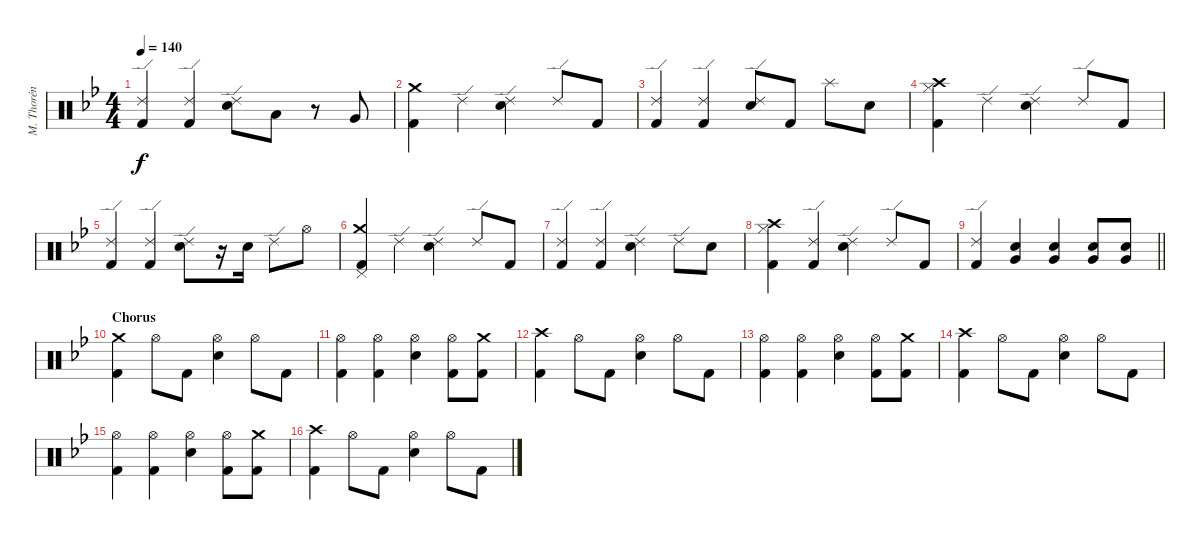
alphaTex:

\track ("M. Thorén (Drums)" "M. Thorén ") {instrument percussion}
\staff {score}
\articulation defaults
\ts (4 4)
\tempo 140
\clef neutral
\ks gminor
("Ride (edge) 2" "Kick (hit) 2").4{dy f} ("Ride (edge) 2" "Kick (hit) 2").4 ("Ride (edge) 2" "Electric Snare (hit)").8 "Low Tom (hit)".8 r.8 "Very Low Tom (hit)".8 |
("Crash medium (hit)" "Kick (hit) 2").4 "Ride (edge) 2".4 ("Ride (edge) 2" "Electric Snare (hit)").4 "Ride (edge) 2".8 "Kick (hit) 2".8 |
("Ride (edge) 2" "Kick (hit) 2").4 ("Ride (edge) 2" "Kick (hit) 2").4 ("Ride (edge) 2" "Electric Snare (hit)").8 "Kick (hit) 2".8 "Splash (hit)".8 "Electric Snare (hit)".8 |
("Crash high (hit)" "Hi-Hat (closed)" "Kick (hit) 2").4 "Ride (edge) 2".4 ("Ride (edge) 2" "Electric Snare (hit)").4 "Ride (edge) 2".8 "Kick (hit) 2".8 |
("Ride (edge) 2" "Kick (hit) 2").4 ("Ride (edge) 2" "Kick (hit) 2").4 ("Ride (edge) 2" "Electric Snare (hit)").8 r.16 "Electric Snare (hit)".16 "Ride (edge) 2".8 "Hi-Hat (open)".8 |
("Crash medium (hit)" "Pedal Hi-Hat (hit)" "Kick (hit) 2").4 "Ride (edge) 2".4 ("Ride (edge) 2" "Electric Snare (hit)").4 "Ride (edge) 2".8 "Kick (hit) 2".8 |
("Ride (edge) 2" "Kick (hit) 2").4 ("Ride (edge) 2" "Kick (hit) 2").4 ("Ride (edge) 2" "Electric Snare (hit)").4 "Ride (edge) 2".8 "Electric Snare (hit)".8 |
("Crash high (hit)" "Hi-Hat (closed)" "Kick (hit) 2").4 ("Ride (edge) 2" "Kick (hit) 2").4 ("Ride (edge) 2" "Electric Snare (hit)").4 "Ride (edge) 2".8 "Kick (hit) 2".8 |
\barLineRight lightlight
("Ride (edge) 2" "Kick (hit) 2").4 ("Electric Snare (hit)" "Very Low Tom (hit)").4 ("Electric Snare (hit)" "Very Low Tom (hit)").4 ("Electric Snare (hit)" "Very Low Tom (hit)").8 ("Electric Snare (hit)" "Very Low Tom (hit)").8 |
\section ("" "Chorus")
("Crash medium (hit)" "Kick (hit) 2").4 "Hi-Hat (open)".8 "Kick (hit) 2".8 ("Hi-Hat (open)" "Electric Snare (hit)").4 "Hi-Hat (open)".8 "Kick (hit) 2".8 |
("Hi-Hat (open)" "Kick (hit) 2").4 ("Hi-Hat (open)" "Kick (hit) 2").4 ("Hi-Hat (open)" "Electric Snare (hit)").4 ("Hi-Hat (open)" "Kick (hit) 2").8 ("Crash medium (hit)" "Kick (hit) 2").8 |
("Crash high (hit)" "Kick (hit) 2").4 "Hi-Hat (open)".8 "Kick (hit) 2".8 ("Hi-Hat (open)" "Electric Snare (hit)").4 "Hi-Hat (open)".8 "Kick (hit) 2".8 |
("Hi-Hat (open)" "Kick (hit) 2").4 ("Hi-Hat (open)" "Kick (hit) 2").4 ("Hi-Hat (open)" "Electric Snare (hit)").4 ("Hi-Hat (open)" "Kick (hit) 2").8 ("Crash medium (hit)" "Kick (hit) 2").8 |
("Crash high (hit)" "Kick (hit) 2").4 "Hi-Hat (open)".8 "Kick (hit) 2".8 ("Hi-Hat (open)" "Electric Snare (hit)").4 "Hi-Hat (open)".8 "Kick (hit) 2".8 |
("Hi-Hat (open)" "Kick (hit) 2").4 ("Hi-Hat (open)" "Kick (hit) 2").4 ("Hi-Hat (open)" "Electric Snare (hit)").4 ("Hi-Hat (open)" "Kick (hit) 2").8 ("Crash medium (hit)" "Kick (hit) 2").8 |
("Crash high (hit)" "Kick (hit) 2").4 "Hi-Hat (open)".8 "Kick (hit) 2".8 ("Hi-Hat (open)" "Electric Snare (hit)").4 "Hi-Hat (open)".8 "Kick (hit) 2".8
